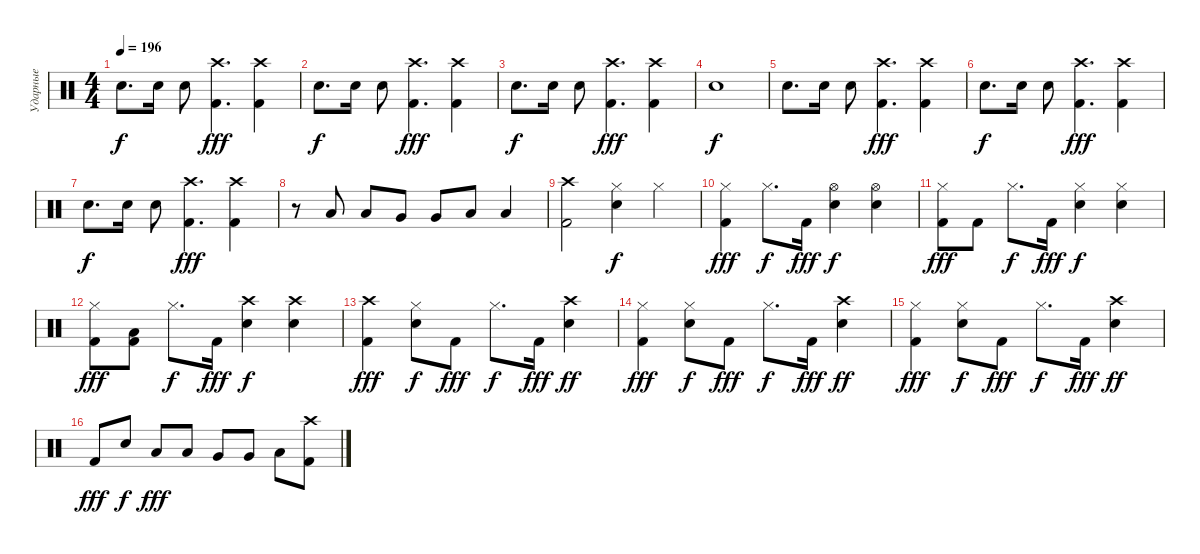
\track ("Ударные" "Ударные") {instrument percussion}
\staff {score}
\articulation defaults
\ts (4 4)
\tempo 196
\clef neutral
\ks c "Snare (hit) 2".8{d dy f} "Snare (hit) 2".16 "Snare (hit) 2".8
("Kick (hit) 2" "Crash high (hit)").4{d dy fff} ("Kick (hit) 2" "Crash high (hit)").4 |
"Snare (hit) 2".8{d dy f} "Snare (hit) 2".16 "Snare (hit) 2".8 ("Kick (hit) 2" "Crash high (hit)").4{d dy fff} ("Kick (hit) 2" "Crash high (hit)").4 |
"Snare (hit) 2".8{d dy f} "Snare (hit) 2".16 "Snare (hit) 2".8 ("Kick (hit) 2" "Crash high (hit)").4{d dy fff} ("Kick (hit) 2" "Crash high (hit)").4 |
"Snare (hit) 2".1{dy f} |
"Snare (hit) 2".8{d} "Snare (hit) 2".16 "Snare (hit) 2".8 ("Kick (hit) 2" "Crash high (hit)").4{d dy fff} ("Kick (hit) 2" "Crash high (hit)").4 |
"Snare (hit) 2".8{d dy f} "Snare (hit) 2".16 "Snare (hit) 2".8 ("Kick (hit) 2" "Crash high (hit)").4{d dy fff} ("Kick (hit) 2" "Crash high (hit)").4 |
"Snare (hit) 2".8{d dy f} "Snare (hit) 2".16 "Snare (hit) 2".8 ("Kick (hit) 2" "Crash high (hit)").4{d dy fff} ("Kick (hit) 2" "Crash high (hit)").4 |
r.8 "Low Tom (hit)".8 "Low Tom (hit)".8 "Very Low Tom (hit)".8 "Very Low Tom (hit)".8 "Low Floor Tom (hit)".8 "Low Floor Tom (hit)".4 |
("Kick (hit) 2" "Crash high (hit)").2 ("Snare (hit) 2" "Hi-Hat (closed)").4{dy f} "Hi-Hat (closed)".4 |
("Kick (hit) 2" "Hi-Hat (closed)").4{dy fff} "Hi-Hat (closed)".8{d dy f} "Kick (hit) 2".16{dy fff} ("Snare (hit) 2" "Hi-Hat (open)").4{dy f} ("Snare (hit) 2" "Hi-Hat (open)").4 |
("Kick (hit) 2" "Hi-Hat (closed)").8{dy fff} "Kick (hit) 2".8 "Hi-Hat (closed)".8{d dy f} "Kick (hit) 2".16{dy fff} ("Snare (hit) 2" "Hi-Hat (closed)").4{dy f} ("Snare (hit) 2" "Hi-Hat (closed)").4 |
("Kick (hit) 2" "Hi-Hat (closed)").8{dy fff} ("Kick (hit) 2" "Low Tom (hit)").8 "Hi-Hat (closed)".8{d dy f} "Kick (hit) 2".16{dy fff} ("Snare (hit) 2" "Crash high (hit)").4{dy f} ("Snare (hit) 2" "Crash high (hit)").4 |
("Kick (hit) 2" "Crash high (hit)").4{dy fff} ("Snare (hit) 2" "Hi-Hat (closed)").8{dy f} "Kick (hit) 2".8{dy fff} "Hi-Hat (closed)".8{d dy f} "Kick (hit) 2".16{dy fff} ("Snare (hit) 2" "Crash high (hit)").4{dy ff} |
("Kick (hit) 2" "Hi-Hat (closed)").4{dy fff} ("Snare (hit) 2" "Hi-Hat (closed)").8{dy f} "Kick (hit) 2".8{dy fff} "Hi-Hat (closed)".8{d dy f} "Kick (hit) 2".16{dy fff} ("Snare (hit) 2" "Crash high (hit)").4{dy ff} |
("Kick (hit) 2" "Hi-Hat (closed)").4{dy fff} ("Snare (hit) 2" "Hi-Hat (closed)").8{dy f} "Kick (hit) 2".8{dy fff} "Hi-Hat (closed)".8{d dy f} "Kick (hit) 2".16{dy fff} ("Snare (hit) 2" "Crash high (hit)").4{dy ff} |
"Kick (hit) 2".8{dy fff} "Snare (hit) 2".8{dy f} "Low Tom (hit)".8{dy fff} "Low Tom (hit)".8 "Very Low Tom (hit)".8 "Very Low Tom (hit)".8 "Low Floor Tom (hit)".8 ("Kick (hit) 2" "Crash high (hit)").8
